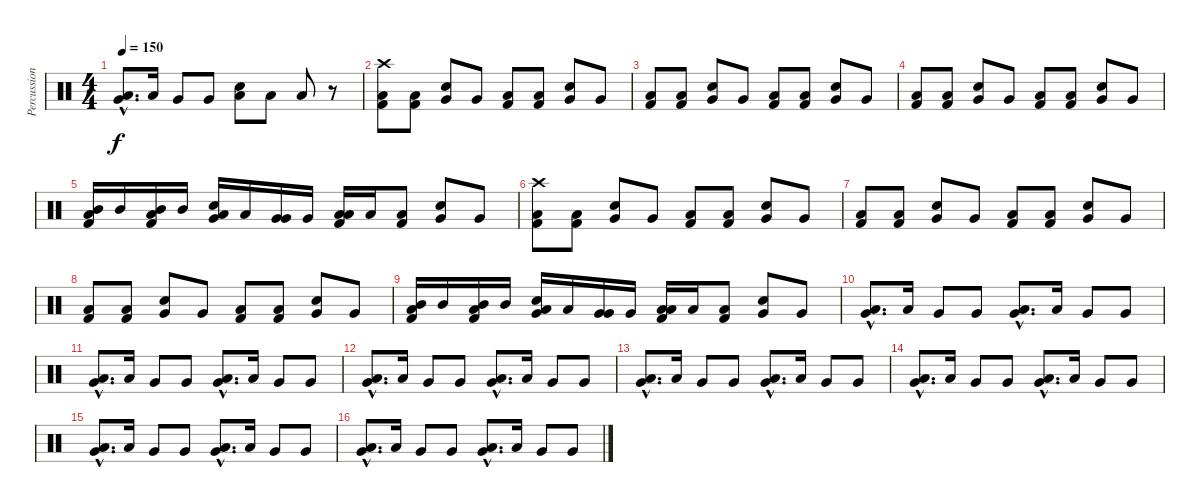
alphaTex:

\track ("Percussions" "Percussion") {instrument percussion}
\staff {score}
\articulation defaults
\ts (4 4)
\tempo 150
\clef neutral
\ks c
("Very Low Tom (hit)"{hac} "Low Floor Tom (hit)"{hac}).8{d dy f} "Low Floor Tom (hit)".16 "Very Low Tom (hit)".8 "Very Low Tom (hit)".8 ("Low Floor Tom (hit)" "Snare (hit) 2").8 "Low Floor Tom (hit)".8 "Low Floor Tom (hit)".8 r.8 |
("Kick (hit) 2" "Low Floor Tom (hit)" "Crash high (hit)").8 ("Kick (hit) 2" "Low Floor Tom (hit)").8 ("Snare (hit) 2" "Very Low Tom (hit)").8 "Very Low Tom (hit)".8 ("Kick (hit) 2" "Low Floor Tom (hit)").8 ("Kick (hit) 2" "Low Floor Tom (hit)").8 ("Snare (hit) 2" "Very Low Tom (hit)").8 "Very Low Tom (hit)".8 |
("Kick (hit) 2" "Low Floor Tom (hit)").8 ("Kick (hit) 2" "Low Floor Tom (hit)").8 ("Snare (hit) 2" "Very Low Tom (hit)").8 "Very Low Tom (hit)".8 ("Kick (hit) 2" "Low Floor Tom (hit)").8 ("Kick (hit) 2" "Low Floor Tom (hit)").8 ("Snare (hit) 2" "Very Low Tom (hit)").8 "Very Low Tom (hit)".8 |
("Kick (hit) 2" "Low Floor Tom (hit)").8 ("Kick (hit) 2" "Low Floor Tom (hit)").8 ("Snare (hit) 2" "Very Low Tom (hit)").8 "Very Low Tom (hit)".8 ("Kick (hit) 2" "Low Floor Tom (hit)").8 ("Kick (hit) 2" "Low Floor Tom (hit)").8 ("Snare (hit) 2" "Very Low Tom (hit)").8 "Very Low Tom (hit)".8 |
("Kick (hit) 2" "Low Floor Tom (hit)" "Mid Tom (hit)").16 "Mid Tom (hit)".16 ("Kick (hit) 2" "Low Floor Tom (hit)" "Mid Tom (hit)").16 "Mid Tom (hit)".16 ("Snare (hit) 2" "Very Low Tom (hit)" "Low Tom (hit)").16 "Low Tom (hit)".16 ("Very Low Tom (hit)" "Very Low Tom (hit)").16 "Very Low Tom (hit)".16 ("Kick (hit) 2" "Low Floor Tom (hit)" "Low Floor Tom (hit)").16 "Low Floor Tom (hit)".16 ("Kick (hit) 2" "Low Floor Tom (hit)").8 ("Snare (hit) 2" "Very Low Tom (hit)").8 "Very Low Tom (hit)".8 |
("Kick (hit) 2" "Low Floor Tom (hit)" "Crash high (hit)").8 ("Kick (hit) 2" "Low Floor Tom (hit)").8 ("Snare (hit) 2" "Very Low Tom (hit)").8 "Very Low Tom (hit)".8 ("Kick (hit) 2" "Low Floor Tom (hit)").8 ("Kick (hit) 2" "Low Floor Tom (hit)").8 ("Snare (hit) 2" "Very Low Tom (hit)").8 "Very Low Tom (hit)".8 |
("Kick (hit) 2" "Low Floor Tom (hit)").8 ("Kick (hit) 2" "Low Floor Tom (hit)").8 ("Snare (hit) 2" "Very Low Tom (hit)").8 "Very Low Tom (hit)".8 ("Kick (hit) 2" "Low Floor Tom (hit)").8 ("Kick (hit) 2" "Low Floor Tom (hit)").8 ("Snare (hit) 2" "Very Low Tom (hit)").8 "Very Low Tom (hit)".8 |
("Kick (hit) 2" "Low Floor Tom (hit)").8 ("Kick (hit) 2" "Low Floor Tom (hit)").8 ("Snare (hit) 2" "Very Low Tom (hit)").8 "Very Low Tom (hit)".8 ("Kick (hit) 2" "Low Floor Tom (hit)").8 ("Kick (hit) 2" "Low Floor Tom (hit)").8 ("Snare (hit) 2" "Very Low Tom (hit)").8 "Very Low Tom (hit)".8 |
("Kick (hit) 2" "Low Floor Tom (hit)" "Mid Tom (hit)").16 "Mid Tom (hit)".16 ("Kick (hit) 2" "Low Floor Tom (hit)" "Mid Tom (hit)").16 "Mid Tom (hit)".16 ("Snare (hit) 2" "Very Low Tom (hit)" "Low Tom (hit)").16 "Low Tom (hit)".16 ("Very Low Tom (hit)" "Very Low Tom (hit)").16 "Very Low Tom (hit)".16 ("Kick (hit) 2" "Low Floor Tom (hit)" "Low Floor Tom (hit)").16 "Low Floor Tom (hit)".16 ("Kick (hit) 2" "Low Floor Tom (hit)").8 ("Snare (hit) 2" "Very Low Tom (hit)").8 "Very Low Tom (hit)".8 |
("Very Low Tom (hit)"{hac} "Low Floor Tom (hit)"{hac}).8{d} "Low Floor Tom (hit)".16 "Very Low Tom (hit)".8 "Very Low Tom (hit)".8 ("Very Low Tom (hit)"{hac} "Low Floor Tom (hit)"{hac}).8{d} "Low Floor Tom (hit)".16 "Very Low Tom (hit)".8 "Very Low Tom (hit)".8 |
("Very Low Tom (hit)"{hac} "Low Floor Tom (hit)"{hac}).8{d} "Low Floor Tom (hit)".16 "Very Low Tom (hit)".8 "Very Low Tom (hit)".8 ("Very Low Tom (hit)"{hac} "Low Floor Tom (hit)"{hac}).8{d} "Low Floor Tom (hit)".16 "Very Low Tom (hit)".8 "Very Low Tom (hit)".8 |
("Very Low Tom (hit)"{hac} "Low Floor Tom (hit)"{hac}).8{d} "Low Floor Tom (hit)".16 "Very Low Tom (hit)".8 "Very Low Tom (hit)".8 ("Very Low Tom (hit)"{hac} "Low Floor Tom (hit)"{hac}).8{d} "Low Floor Tom (hit)".16 "Very Low Tom (hit)".8 "Very Low Tom (hit)".8 |
("Very Low Tom (hit)"{hac} "Low Floor Tom (hit)"{hac}).8{d} "Low Floor Tom (hit)".16 "Very Low Tom (hit)".8 "Very Low Tom (hit)".8 ("Very Low Tom (hit)"{hac} "Low Floor Tom (hit)"{hac}).8{d} "Low Floor Tom (hit)".16 "Very Low Tom (hit)".8 "Very Low Tom (hit)".8 |
("Very Low Tom (hit)"{hac} "Low Floor Tom (hit)"{hac}).8{d} "Low Floor Tom (hit)".16 "Very Low Tom (hit)".8 "Very Low Tom (hit)".8 ("Very Low Tom (hit)"{hac} "Low Floor Tom (hit)"{hac}).8{d} "Low Floor Tom (hit)".16 "Very Low Tom (hit)".8 "Very Low Tom (hit)".8 |
("Very Low Tom (hit)"{hac} "Low Floor Tom (hit)"{hac}).8{d} "Low Floor Tom (hit)".16 "Very Low Tom (hit)".8 "Very Low Tom (hit)".8 ("Very Low Tom (hit)"{hac} "Low Floor Tom (hit)"{hac}).8{d} "Low Floor Tom (hit)".16 "Very Low Tom (hit)".8 "Very Low Tom (hit)".8 |
("Very Low Tom (hit)"{hac} "Low Floor Tom (hit)"{hac}).8{d} "Low Floor Tom (hit)".16 "Very Low Tom (hit)".8 "Very Low Tom (hit)".8 ("Very Low Tom (hit)"{hac} "Low Floor Tom (hit)"{hac}).8{d} "Low Floor Tom (hit)".16 "Very Low Tom (hit)".8 "Very Low Tom (hit)".8
